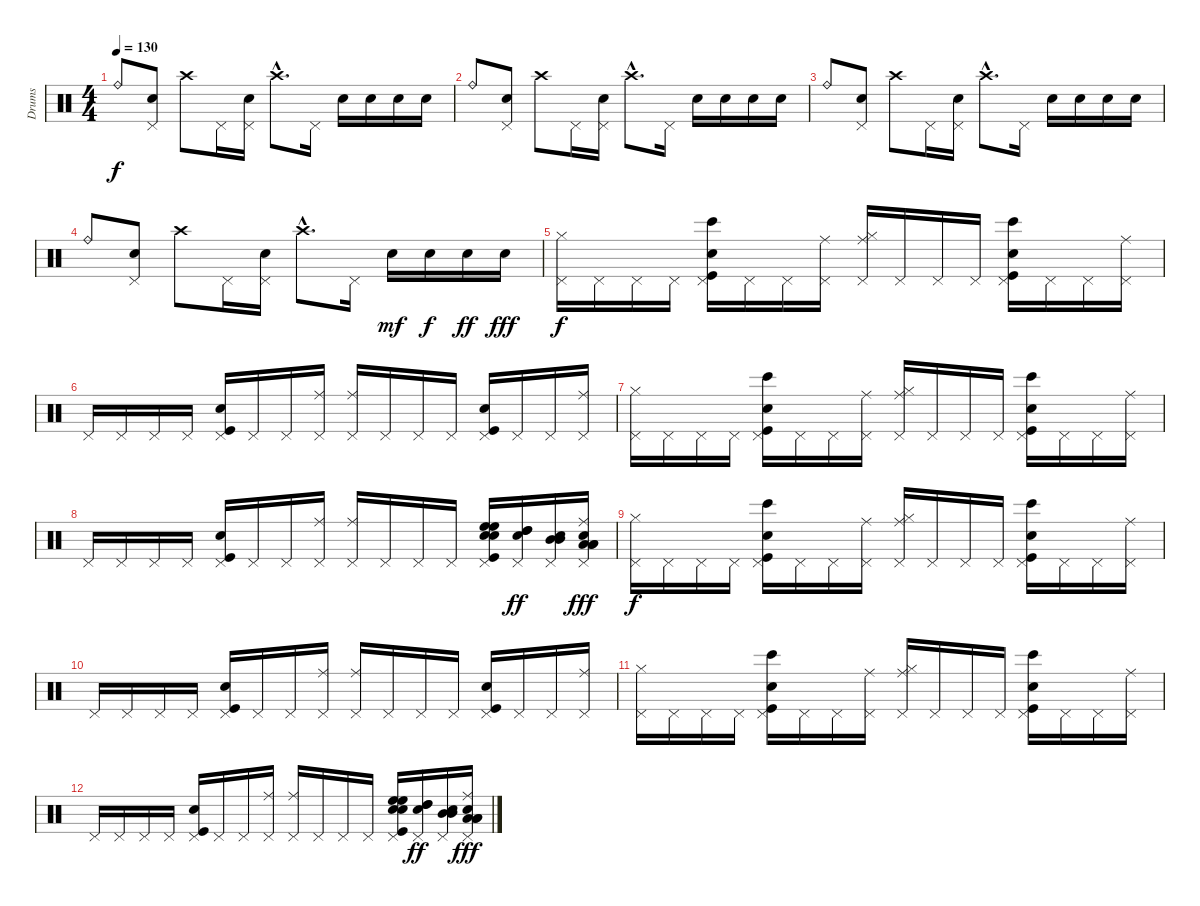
\track ("Drums" "Drums") {instrument percussion}
\staff {score}
\articulation defaults
\ts (4 4)
\tempo 130
\clef neutral
\ks c "Ride (bell)".8{dy f}
("Pedal Hi-Hat (hit)" "Snare (hit) 2").8 "Crash high (hit)".8 "Pedal Hi-Hat (hit)".16 ("Pedal Hi-Hat (hit)" "Snare (hit) 2").16 "Crash high (hit)"{hac}.8{d} "Pedal Hi-Hat (hit)".16 "Snare (hit) 2".16 "Snare (hit) 2".16 "Snare (hit) 2".16 "Snare (hit) 2".16 |
"Ride (bell)".8 ("Pedal Hi-Hat (hit)" "Snare (hit) 2").8 "Crash high (hit)".8 "Pedal Hi-Hat (hit)".16 ("Pedal Hi-Hat (hit)" "Snare (hit) 2").16 "Crash high (hit)"{hac}.8{d} "Pedal Hi-Hat (hit)".16 "Snare (hit) 2".16 "Snare (hit) 2".16 "Snare (hit) 2".16 "Snare (hit) 2".16 |
"Ride (bell)".8 ("Pedal Hi-Hat (hit)" "Snare (hit) 2").8 "Crash high (hit)".8 "Pedal Hi-Hat (hit)".16 ("Pedal Hi-Hat (hit)" "Snare (hit) 2").16 "Crash high (hit)"{hac}.8{d} "Pedal Hi-Hat (hit)".16 "Snare (hit) 2".16 "Snare (hit) 2".16 "Snare (hit) 2".16 "Snare (hit) 2".16 |
"Ride (bell)".8 ("Pedal Hi-Hat (hit)" "Snare (hit) 2").8 "Crash high (hit)".8 "Pedal Hi-Hat (hit)".16 ("Pedal Hi-Hat (hit)" "Snare (hit) 2").16 "Crash high (hit)"{hac}.8{d} "Pedal Hi-Hat (hit)".16 "Snare (hit) 2".16{dy mf} "Snare (hit) 2".16{dy f} "Snare (hit) 2".16{dy ff} "Snare (hit) 2".16{dy fff} |
("Pedal Hi-Hat (hit)" "Hi-Hat (closed)").16{dy f volume 13} "Pedal Hi-Hat (hit)".16 "Pedal Hi-Hat (hit)".16 "Pedal Hi-Hat (hit)".16 ("Pedal Hi-Hat (hit)" "Kick (hit)" "Electric Snare (hit)" "Bongo High (hit)").16 "Pedal Hi-Hat (hit)".16 "Pedal Hi-Hat (hit)".16 ("Pedal Hi-Hat (hit)" "Ride (middle)").16 ("Pedal Hi-Hat (hit)" "Ride (middle)" "Hi-Hat (closed)").16 "Pedal Hi-Hat (hit)".16 "Pedal Hi-Hat (hit)".16 "Pedal Hi-Hat (hit)".16 ("Kick (hit)" "Pedal Hi-Hat (hit)" "Electric Snare (hit)" "Bongo High (hit)").16 "Pedal Hi-Hat (hit)".16 "Pedal Hi-Hat (hit)".16 ("Pedal Hi-Hat (hit)" "Ride (middle)").16 |
"Pedal Hi-Hat (hit)".16 "Pedal Hi-Hat (hit)".16 "Pedal Hi-Hat (hit)".16 "Pedal Hi-Hat (hit)".16 ("Pedal Hi-Hat (hit)" "Kick (hit)" "Electric Snare (hit)").16 "Pedal Hi-Hat (hit)".16 "Pedal Hi-Hat (hit)".16 ("Pedal Hi-Hat (hit)" "Ride (middle)").16 ("Pedal Hi-Hat (hit)" "Ride (middle)").16 "Pedal Hi-Hat (hit)".16 "Pedal Hi-Hat (hit)".16 "Pedal Hi-Hat (hit)".16 ("Kick (hit)" "Pedal Hi-Hat (hit)" "Electric Snare (hit)").16 "Pedal Hi-Hat (hit)".16 "Pedal Hi-Hat (hit)".16 ("Pedal Hi-Hat (hit)" "Ride (middle)").16 |
("Pedal Hi-Hat (hit)" "Hi-Hat (closed)").16{volume 8} "Pedal Hi-Hat (hit)".16 "Pedal Hi-Hat (hit)".16 "Pedal Hi-Hat (hit)".16 ("Pedal Hi-Hat (hit)" "Kick (hit)" "Electric Snare (hit)" "Bongo High (hit)").16 "Pedal Hi-Hat (hit)".16 "Pedal Hi-Hat (hit)".16 ("Pedal Hi-Hat (hit)" "Ride (middle)").16 ("Pedal Hi-Hat (hit)" "Ride (middle)" "Hi-Hat (closed)").16 "Pedal Hi-Hat (hit)".16 "Pedal Hi-Hat (hit)".16 "Pedal Hi-Hat (hit)".16 ("Kick (hit)" "Pedal Hi-Hat (hit)" "Electric Snare (hit)" "Bongo High (hit)").16 "Pedal Hi-Hat (hit)".16 "Pedal Hi-Hat (hit)".16 ("Pedal Hi-Hat (hit)" "Ride (middle)").16 |
"Pedal Hi-Hat (hit)".16 "Pedal Hi-Hat (hit)".16 "Pedal Hi-Hat (hit)".16 "Pedal Hi-Hat (hit)".16 ("Pedal Hi-Hat (hit)" "Kick (hit)" "Electric Snare (hit)").16 "Pedal Hi-Hat (hit)".16 "Pedal Hi-Hat (hit)".16 ("Pedal Hi-Hat (hit)" "Ride (middle)").16 ("Pedal Hi-Hat (hit)" "Ride (middle)").16 "Pedal Hi-Hat (hit)".16 "Pedal Hi-Hat (hit)".16 "Pedal Hi-Hat (hit)".16 ("Kick (hit)" "Pedal Hi-Hat (hit)" "Electric Snare (hit)" "High Floor Tom (hit)" "High Floor Tom (hit)" "Snare (hit) 2").16 ("Pedal Hi-Hat (hit)" "High Tom (hit)" "High Tom (hit)" "Snare (hit) 2").16{dy ff} ("Pedal Hi-Hat (hit)" "Mid Tom (hit)" "Mid Tom (hit)" "Snare (hit) 2").16 ("Pedal Hi-Hat (hit)" "Ride (middle)" "Low Tom (hit)" "Low Tom (hit)" "Low Tom (hit)" "Snare (hit) 2").16{dy fff} |
("Pedal Hi-Hat (hit)" "Hi-Hat (closed)").16{dy f volume 4} "Pedal Hi-Hat (hit)".16 "Pedal Hi-Hat (hit)".16 "Pedal Hi-Hat (hit)".16 ("Pedal Hi-Hat (hit)" "Kick (hit)" "Electric Snare (hit)" "Bongo High (hit)").16 "Pedal Hi-Hat (hit)".16 "Pedal Hi-Hat (hit)".16 ("Pedal Hi-Hat (hit)" "Ride (middle)").16 ("Pedal Hi-Hat (hit)" "Ride (middle)" "Hi-Hat (closed)").16 "Pedal Hi-Hat (hit)".16 "Pedal Hi-Hat (hit)".16 "Pedal Hi-Hat (hit)".16 ("Kick (hit)" "Pedal Hi-Hat (hit)" "Electric Snare (hit)" "Bongo High (hit)").16 "Pedal Hi-Hat (hit)".16 "Pedal Hi-Hat (hit)".16 ("Pedal Hi-Hat (hit)" "Ride (middle)").16 |
"Pedal Hi-Hat (hit)".16 "Pedal Hi-Hat (hit)".16 "Pedal Hi-Hat (hit)".16 "Pedal Hi-Hat (hit)".16 ("Pedal Hi-Hat (hit)" "Kick (hit)" "Electric Snare (hit)").16 "Pedal Hi-Hat (hit)".16 "Pedal Hi-Hat (hit)".16 ("Pedal Hi-Hat (hit)" "Ride (middle)").16 ("Pedal Hi-Hat (hit)" "Ride (middle)").16 "Pedal Hi-Hat (hit)".16 "Pedal Hi-Hat (hit)".16 "Pedal Hi-Hat (hit)".16 ("Kick (hit)" "Pedal Hi-Hat (hit)" "Electric Snare (hit)").16 "Pedal Hi-Hat (hit)".16 "Pedal Hi-Hat (hit)".16 ("Pedal Hi-Hat (hit)" "Ride (middle)").16 |
("Pedal Hi-Hat (hit)" "Hi-Hat (closed)").16{volume 0} "Pedal Hi-Hat (hit)".16 "Pedal Hi-Hat (hit)".16 "Pedal Hi-Hat (hit)".16 ("Pedal Hi-Hat (hit)" "Kick (hit)" "Electric Snare (hit)" "Bongo High (hit)").16 "Pedal Hi-Hat (hit)".16 "Pedal Hi-Hat (hit)".16 ("Pedal Hi-Hat (hit)" "Ride (middle)").16 ("Pedal Hi-Hat (hit)" "Ride (middle)" "Hi-Hat (closed)").16 "Pedal Hi-Hat (hit)".16 "Pedal Hi-Hat (hit)".16 "Pedal Hi-Hat (hit)".16 ("Kick (hit)" "Pedal Hi-Hat (hit)" "Electric Snare (hit)" "Bongo High (hit)").16 "Pedal Hi-Hat (hit)".16 "Pedal Hi-Hat (hit)".16 ("Pedal Hi-Hat (hit)" "Ride (middle)").16 |
"Pedal Hi-Hat (hit)".16 "Pedal Hi-Hat (hit)".16 "Pedal Hi-Hat (hit)".16 "Pedal Hi-Hat (hit)".16 ("Pedal Hi-Hat (hit)" "Kick (hit)" "Electric Snare (hit)").16 "Pedal Hi-Hat (hit)".16 "Pedal Hi-Hat (hit)".16 ("Pedal Hi-Hat (hit)" "Ride (middle)").16 ("Pedal Hi-Hat (hit)" "Ride (middle)").16 "Pedal Hi-Hat (hit)".16 "Pedal Hi-Hat (hit)".16 "Pedal Hi-Hat (hit)".16 ("Kick (hit)" "Pedal Hi-Hat (hit)" "Electric Snare (hit)" "High Floor Tom (hit)" "High Floor Tom (hit)" "Snare (hit) 2").16 ("Pedal Hi-Hat (hit)" "High Tom (hit)" "High Tom (hit)" "Snare (hit) 2").16{dy ff} ("Pedal Hi-Hat (hit)" "Mid Tom (hit)" "Mid Tom (hit)" "Snare (hit) 2").16 ("Pedal Hi-Hat (hit)" "Ride (middle)" "Low Tom (hit)" "Low Tom (hit)" "Low Tom (hit)" "Snare (hit) 2").16{dy fff}
